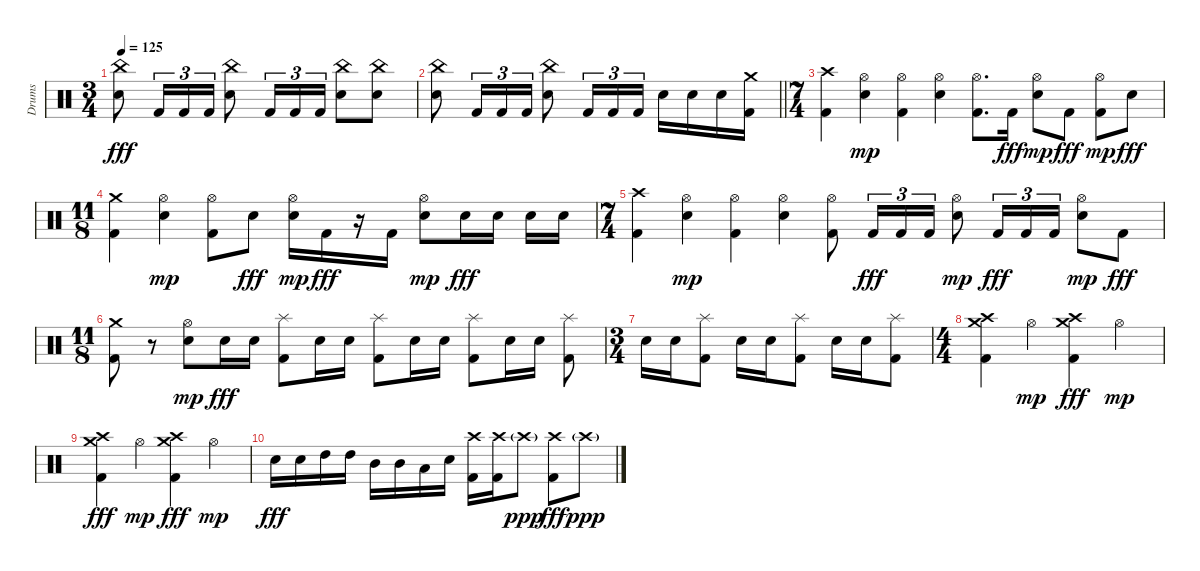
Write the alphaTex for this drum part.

\track ("Drums" "Drums") {instrument percussion}
\staff {score}
\articulation defaults
\ts (3 4)
\tempo 125
\clef neutral
\ks c
("Electric Snare (hit)" "China (hit)").8{dy fff} "Kick (hit) 2".16{tu (3 2)} "Kick (hit) 2".16{tu (3 2)} "Kick (hit) 2".16{tu (3 2)} ("Electric Snare (hit)" "China (hit)").8 "Kick (hit) 2".16{tu (3 2)} "Kick (hit) 2".16{tu (3 2)} "Kick (hit) 2".16{tu (3 2)} ("Electric Snare (hit)" "China (hit)").8 ("Electric Snare (hit)" "China (hit)").8 |
\barLineRight lightlight
("Electric Snare (hit)" "China (hit)").8 "Kick (hit) 2".16{tu (3 2)} "Kick (hit) 2".16{tu (3 2)} "Kick (hit) 2".16{tu (3 2)} ("Electric Snare (hit)" "China (hit)").8 "Kick (hit) 2".16{tu (3 2)} "Kick (hit) 2".16{tu (3 2)} "Kick (hit) 2".16{tu (3 2)} "Electric Snare (hit)".16 "Electric Snare (hit)".16 "Electric Snare (hit)".16 ("Kick (hit) 2" "Crash medium (hit)").16 |
\ts (7 4)
("Kick (hit) 2" "Crash high (hit)").4 ("Electric Snare (hit)" "Hi-Hat (open)").4{dy mp} ("Kick (hit) 2" "Hi-Hat (open)").4 ("Electric Snare (hit)" "Hi-Hat (open)").4 ("Kick (hit) 2" "Hi-Hat (open)").8{d} "Kick (hit) 2".16{dy fff} ("Electric Snare (hit)" "Hi-Hat (open)").8{dy mp} "Kick (hit) 2".8{dy fff} ("Kick (hit) 2" "Hi-Hat (open)").8{dy mp} "Electric Snare (hit)".8{dy fff} |
\ts (11 8)
("Kick (hit) 2" "Crash medium (hit)").4 ("Electric Snare (hit)" "Hi-Hat (open)").4{dy mp} ("Kick (hit) 2" "Hi-Hat (open)").8 "Electric Snare (hit)".8{dy fff} ("Electric Snare (hit)" "Hi-Hat (open)").16{dy mp} "Kick (hit) 2".16{dy fff} r.16 "Kick (hit) 2".16 ("Electric Snare (hit)" "Hi-Hat (open)").8{dy mp} "Electric Snare (hit)".16{dy fff} "Electric Snare (hit)".16 "Electric Snare (hit)".16 "Electric Snare (hit)".16 |
\ts (7 4)
("Kick (hit) 2" "Crash high (hit)").4 ("Electric Snare (hit)" "Hi-Hat (open)").4{dy mp} ("Kick (hit) 2" "Hi-Hat (open)").4 ("Electric Snare (hit)" "Hi-Hat (open)").4 ("Kick (hit) 2" "Hi-Hat (open)").8 "Kick (hit) 2".16{tu (3 2) dy fff} "Kick (hit) 2".16{tu (3 2)} "Kick (hit) 2".16{tu (3 2)} ("Electric Snare (hit)" "Hi-Hat (open)").8{dy mp} "Kick (hit) 2".16{tu (3 2) dy fff} "Kick (hit) 2".16{tu (3 2)} "Kick (hit) 2".16{tu (3 2)} ("Electric Snare (hit)" "Hi-Hat (open)").8{dy mp} "Kick (hit) 2".8{dy fff} |
\ts (11 8)
("Kick (hit) 2" "Crash medium (hit)").8 r.8 ("Electric Snare (hit)" "Hi-Hat (open)").8{dy mp} "Electric Snare (hit)".16{dy fff} "Electric Snare (hit)".16 ("Kick (hit) 2" "Splash (hit)").8 "Electric Snare (hit)".16 "Electric Snare (hit)".16 ("Kick (hit) 2" "Splash (hit)").8 "Electric Snare (hit)".16 "Electric Snare (hit)".16 ("Kick (hit) 2" "Splash (hit)").8 "Electric Snare (hit)".16 "Electric Snare (hit)".16 ("Kick (hit) 2" "Splash (hit)").8 |
\ts (3 4)
"Electric Snare (hit)".16 "Electric Snare (hit)".16 ("Kick (hit) 2" "Splash (hit)").8 "Electric Snare (hit)".16 "Electric Snare (hit)".16 ("Kick (hit) 2" "Splash (hit)").8 "Electric Snare (hit)".16 "Electric Snare (hit)".16 ("Kick (hit) 2" "Splash (hit)").8 |
\ts (4 4)
("Kick (hit) 2" "Crash medium (hit)" "Crash high (hit)").4 "Hi-Hat (open)".4{dy mp} ("Kick (hit) 2" "Crash medium (hit)" "Crash high (hit)").4{dy fff} "Hi-Hat (open)".4{dy mp} |
("Kick (hit) 2" "Crash medium (hit)" "Crash high (hit)").4{dy fff} "Hi-Hat (open)".4{dy mp} ("Kick (hit) 2" "Crash medium (hit)" "Crash high (hit)").4{dy fff} "Hi-Hat (open)".4{dy mp} |
"Electric Snare (hit)".16{dy fff} "Electric Snare (hit)".16 "High Tom (hit)".16 "High Tom (hit)".16 "Mid Tom (hit)".16 "Mid Tom (hit)".16 "Low Tom (hit)".16 "Electric Snare (hit)".16 ("Kick (hit) 2" "Crash high (hit)").16 ("Kick (hit) 2" "Crash high (hit)").16 "Crash high (hit)"{g}.8{dy ppp} ("Kick (hit) 2" "Crash high (hit)").8{dy fff} "Crash high (hit)"{g}.8{dy ppp}
